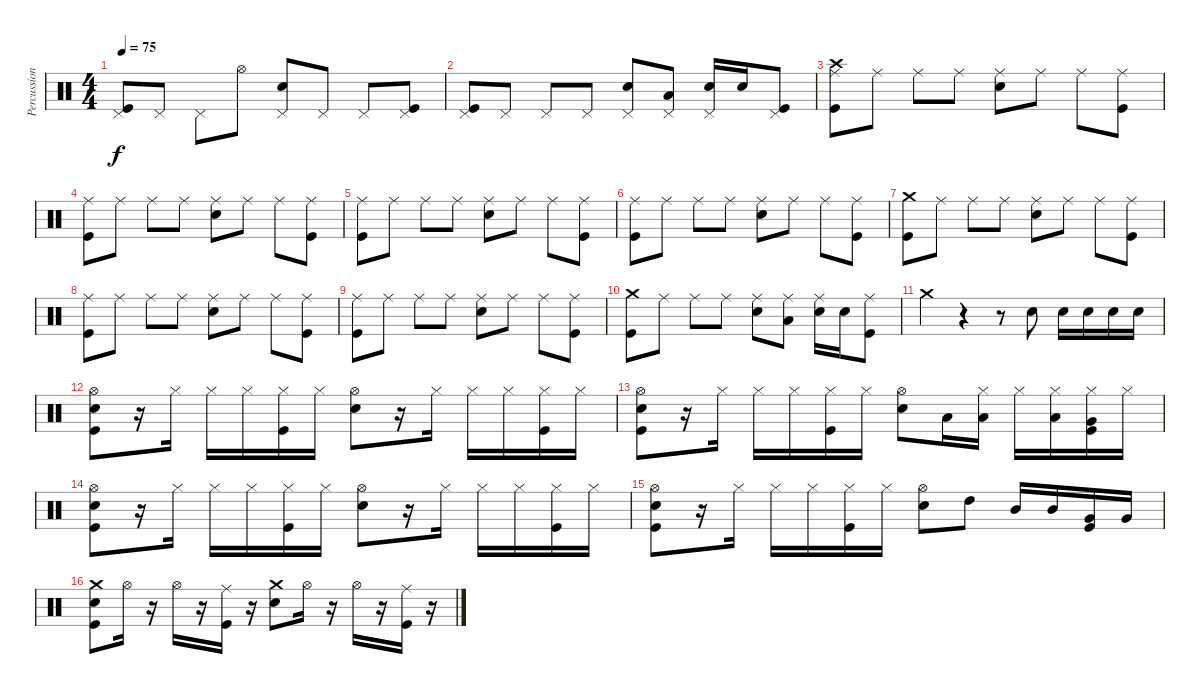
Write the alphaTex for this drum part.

\track ("Percussion" "Percussion") {instrument percussion}
\staff {score}
\articulation defaults
\ts (4 4)
\tempo 75
\clef neutral
\ks c
("Pedal Hi-Hat (hit)" "Kick (hit)").8{dy f} "Pedal Hi-Hat (hit)".8 "Pedal Hi-Hat (hit)".8 "Hi-Hat (open)".8 ("Snare (hit) 2" "Pedal Hi-Hat (hit)").8 "Pedal Hi-Hat (hit)".8 "Pedal Hi-Hat (hit)".8 ("Kick (hit)" "Pedal Hi-Hat (hit)").8 |
("Pedal Hi-Hat (hit)" "Kick (hit)").8 "Pedal Hi-Hat (hit)".8 "Pedal Hi-Hat (hit)".8 "Pedal Hi-Hat (hit)".8 ("Snare (hit) 2" "Pedal Hi-Hat (hit)").8 ("Low Floor Tom (hit)" "Pedal Hi-Hat (hit)").8 ("Snare (hit) 2" "Pedal Hi-Hat (hit)").16 "Snare (hit) 2".16 ("Kick (hit)" "Pedal Hi-Hat (hit)").8 |
("Crash high (hit)" "Kick (hit)" "Ride (middle)").8 "Ride (middle)".8 "Ride (middle)".8 "Ride (middle)".8 ("Snare (hit) 2" "Ride (middle)").8 "Ride (middle)".8 "Ride (middle)".8 ("Kick (hit)" "Ride (middle)").8 |
("Ride (middle)" "Kick (hit)").8 "Ride (middle)".8 "Ride (middle)".8 "Ride (middle)".8 ("Snare (hit) 2" "Ride (middle)").8 "Ride (middle)".8 "Ride (middle)".8 ("Kick (hit)" "Ride (middle)").8 |
("Ride (middle)" "Kick (hit)").8 "Ride (middle)".8 "Ride (middle)".8 "Ride (middle)".8 ("Snare (hit) 2" "Ride (middle)").8 "Ride (middle)".8 "Ride (middle)".8 ("Kick (hit)" "Ride (middle)").8 |
("Ride (middle)" "Kick (hit)").8 "Ride (middle)".8 "Ride (middle)".8 "Ride (middle)".8 ("Snare (hit) 2" "Ride (middle)").8 "Ride (middle)".8 "Ride (middle)".8 ("Kick (hit)" "Ride (middle)").8 |
("Crash medium (hit)" "Kick (hit)").8 "Ride (middle)".8 "Ride (middle)".8 "Ride (middle)".8 ("Snare (hit) 2" "Ride (middle)").8 "Ride (middle)".8 "Ride (middle)".8 ("Kick (hit)" "Ride (middle)").8 |
("Ride (middle)" "Kick (hit)").8 "Ride (middle)".8 "Ride (middle)".8 "Ride (middle)".8 ("Snare (hit) 2" "Ride (middle)").8 "Ride (middle)".8 "Ride (middle)".8 ("Kick (hit)" "Ride (middle)").8 |
("Ride (middle)" "Kick (hit)").8 "Ride (middle)".8 "Ride (middle)".8 "Ride (middle)".8 ("Snare (hit) 2" "Ride (middle)").8 "Ride (middle)".8 "Ride (middle)".8 ("Kick (hit)" "Ride (middle)").8 |
("Crash medium (hit)" "Kick (hit)").8 "Ride (middle)".8 "Ride (middle)".8 "Ride (middle)".8 ("Snare (hit) 2" "Ride (middle)").8 ("Low Floor Tom (hit)" "Ride (middle)").8 ("Snare (hit) 2" "Ride (middle)").16 "Snare (hit) 2".16 ("Kick (hit)" "Ride (middle)").8 |
"Crash medium (hit)".4 r.4 r.8 "Snare (hit) 2".8 "Snare (hit) 2".16 "Snare (hit) 2".16 "Snare (hit) 2".16 "Snare (hit) 2".16 |
("Hi-Hat (open)" "Kick (hit)" "Snare (hit) 2").8 r.16 "Hi-Hat (closed)".16 "Hi-Hat (closed)".16 "Hi-Hat (closed)".16 ("Kick (hit)" "Hi-Hat (closed)").16 "Hi-Hat (closed)".16 ("Snare (hit) 2" "Hi-Hat (open)").8 r.16 "Hi-Hat (closed)".16 "Hi-Hat (closed)".16 "Hi-Hat (closed)".16 ("Kick (hit)" "Hi-Hat (closed)").16 "Hi-Hat (closed)".16 |
("Hi-Hat (open)" "Kick (hit)" "Snare (hit) 2").8 r.16 "Hi-Hat (closed)".16 "Hi-Hat (closed)".16 "Hi-Hat (closed)".16 ("Kick (hit)" "Hi-Hat (closed)").16 "Hi-Hat (closed)".16 ("Snare (hit) 2" "Hi-Hat (open)").8 "Low Tom (hit)".16 ("Low Tom (hit)" "Hi-Hat (closed)").16 "Hi-Hat (closed)".16 ("Low Tom (hit)" "Hi-Hat (closed)").16 ("Very Low Tom (hit)" "Kick (hit)" "Hi-Hat (closed)").16 "Hi-Hat (closed)".16 |
("Hi-Hat (open)" "Kick (hit)" "Snare (hit) 2").8 r.16 "Hi-Hat (closed)".16 "Hi-Hat (closed)".16 "Hi-Hat (closed)".16 ("Kick (hit)" "Hi-Hat (closed)").16 "Hi-Hat (closed)".16 ("Snare (hit) 2" "Hi-Hat (open)").8 r.16 "Hi-Hat (closed)".16 "Hi-Hat (closed)".16 "Hi-Hat (closed)".16 ("Kick (hit)" "Hi-Hat (closed)").16 "Hi-Hat (closed)".16 |
("Hi-Hat (open)" "Kick (hit)" "Snare (hit) 2").8 r.16 "Hi-Hat (closed)".16 "Hi-Hat (closed)".16 "Hi-Hat (closed)".16 ("Kick (hit)" "Hi-Hat (closed)").16 "Hi-Hat (closed)".16 ("Snare (hit) 2" "Hi-Hat (open)").8 "High Tom (hit)".8 "Mid Tom (hit)".16 "Mid Tom (hit)".16 ("Very Low Tom (hit)" "Kick (hit)").16 "Very Low Tom (hit)".16 |
("Crash medium (hit)" "Kick (hit)" "Snare (hit) 2").8 "Hi-Hat (open)".16 r.16 "Hi-Hat (open)".16 r.16 ("Kick (hit)" "Ride (middle)").16 r.16 ("Snare (hit) 2" "Crash medium (hit)").8 "Hi-Hat (open)".16 r.16 "Hi-Hat (open)".16 r.16 ("Kick (hit)" "Ride (middle)").16 r.16
